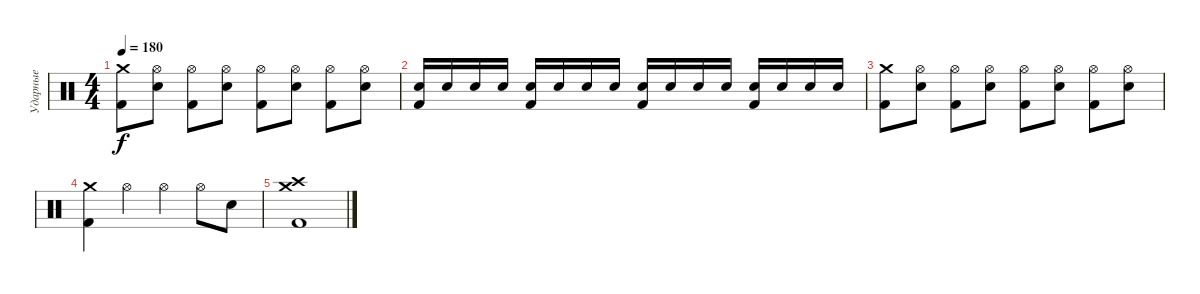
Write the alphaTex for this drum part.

\track ("Ударные" "Ударные") {instrument percussion}
\staff {score}
\articulation defaults
\ts (4 4)
\tempo 180
\clef neutral
\ks c
("Crash medium (hit)" "Kick (hit) 2").8{dy f} ("Hi-Hat (open)" "Electric Snare (hit)").8 ("Hi-Hat (open)" "Kick (hit) 2").8 ("Hi-Hat (open)" "Electric Snare (hit)").8 ("Hi-Hat (open)" "Kick (hit) 2").8 ("Hi-Hat (open)" "Electric Snare (hit)").8 ("Hi-Hat (open)" "Kick (hit) 2").8 ("Hi-Hat (open)" "Electric Snare (hit)").8 |
("Electric Snare (hit)" "Kick (hit) 2").16 "Electric Snare (hit)".16 "Electric Snare (hit)".16 "Electric Snare (hit)".16 ("Electric Snare (hit)" "Kick (hit) 2").16 "Electric Snare (hit)".16 "Electric Snare (hit)".16 "Electric Snare (hit)".16 ("Electric Snare (hit)" "Kick (hit) 2").16 "Electric Snare (hit)".16 "Electric Snare (hit)".16 "Electric Snare (hit)".16 ("Electric Snare (hit)" "Kick (hit) 2").16 "Electric Snare (hit)".16 "Electric Snare (hit)".16 "Electric Snare (hit)".16 |
("Crash medium (hit)" "Kick (hit) 2").8 ("Hi-Hat (open)" "Electric Snare (hit)").8 ("Hi-Hat (open)" "Kick (hit) 2").8 ("Hi-Hat (open)" "Electric Snare (hit)").8 ("Hi-Hat (open)" "Kick (hit) 2").8 ("Hi-Hat (open)" "Electric Snare (hit)").8 ("Hi-Hat (open)" "Kick (hit) 2").8 ("Hi-Hat (open)" "Electric Snare (hit)").8 |
("Crash medium (hit)" "Kick (hit) 2").4 "Hi-Hat (open)".4 "Hi-Hat (open)".4 "Hi-Hat (open)".8 "Electric Snare (hit)".8 |
("Crash medium (hit)" "Crash high (hit)" "Kick (hit) 2").1
